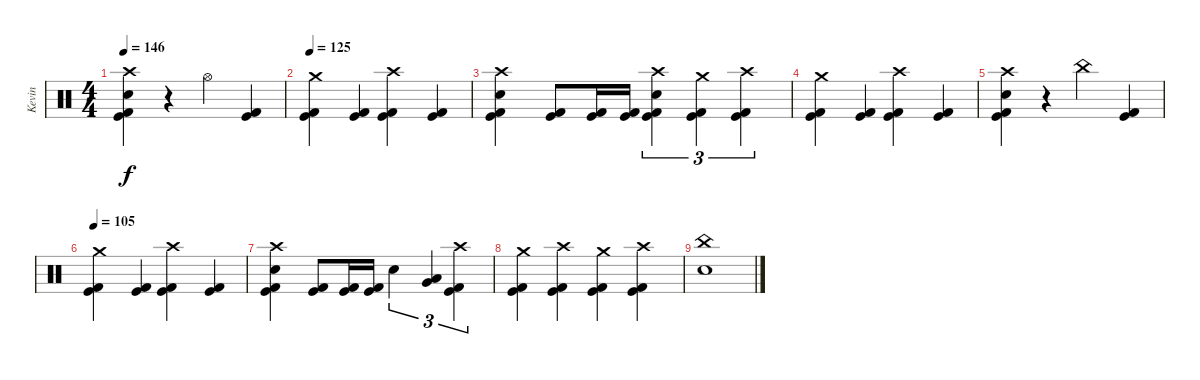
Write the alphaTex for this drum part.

\track ("Kevin" "Kevin") {instrument percussion}
\staff {score}
\articulation defaults
\ts (4 4)
\tempo 146
\clef neutral
\ks c
("Crash high (hit)" "Electric Snare (hit)" "Kick (hit)" "Kick (hit) 2").4{dy f} r.4 "Hi-Hat (open)".4 ("Kick (hit)" "Kick (hit) 2").4 |
\tempo 125
("Crash medium (hit)" "Kick (hit)" "Kick (hit) 2").4 ("Kick (hit)" "Kick (hit) 2").4 ("Crash high (hit)" "Kick (hit)" "Kick (hit) 2").4 ("Kick (hit)" "Kick (hit) 2").4 |
("Crash high (hit)" "Electric Snare (hit)" "Kick (hit)" "Kick (hit) 2").4 ("Kick (hit)" "Kick (hit) 2").8 ("Kick (hit)" "Kick (hit) 2").16 ("Kick (hit)" "Kick (hit) 2").16 ("Crash high (hit)" "Electric Snare (hit)" "Kick (hit)" "Kick (hit) 2").4{tu (3 2)} ("Crash medium (hit)" "Kick (hit)" "Kick (hit) 2").4{tu (3 2)} ("Crash high (hit)" "Kick (hit)" "Kick (hit) 2").4{tu (3 2)} |
("Crash medium (hit)" "Kick (hit)" "Kick (hit) 2").4 ("Kick (hit)" "Kick (hit) 2").4 ("Crash high (hit)" "Kick (hit)" "Kick (hit) 2").4 ("Kick (hit)" "Kick (hit) 2").4 |
("Crash high (hit)" "Electric Snare (hit)" "Kick (hit)" "Kick (hit) 2").4 r.4 "China (hit)".4 ("Kick (hit)" "Kick (hit) 2").4 |
\tempo 105
("Crash medium (hit)" "Kick (hit)" "Kick (hit) 2").4 ("Kick (hit)" "Kick (hit) 2").4 ("Crash high (hit)" "Kick (hit)" "Kick (hit) 2").4 ("Kick (hit)" "Kick (hit) 2").4 |
("Crash high (hit)" "Electric Snare (hit)" "Kick (hit)" "Kick (hit) 2").4 ("Kick (hit)" "Kick (hit) 2").8 ("Kick (hit)" "Kick (hit) 2").16 ("Kick (hit)" "Kick (hit) 2").16 "Electric Snare (hit)".4{tu (3 2)} ("Low Tom (hit)" "Very Low Tom (hit)").4{tu (3 2)} ("Crash high (hit)" "Kick (hit)" "Kick (hit) 2").4{tu (3 2)} |
("Crash medium (hit)" "Kick (hit)" "Kick (hit) 2").4 ("Crash high (hit)" "Kick (hit)" "Kick (hit) 2").4 ("Crash medium (hit)" "Kick (hit)" "Kick (hit) 2").4 ("Crash high (hit)" "Kick (hit)" "Kick (hit) 2").4 |
("China (hit)" "Electric Snare (hit)").1
